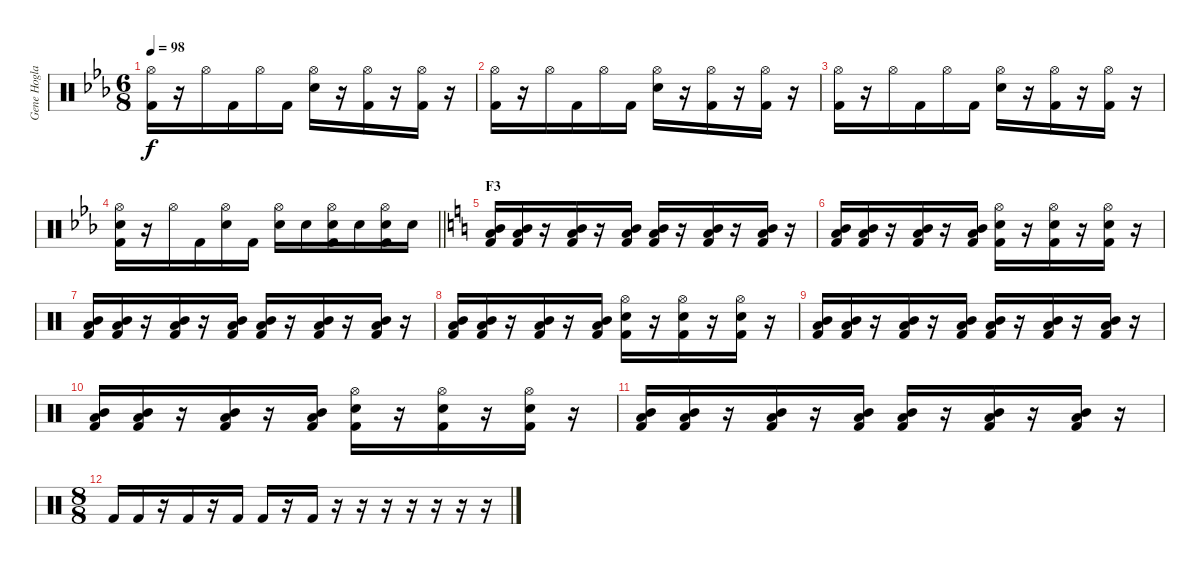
\track ("Gene Hogland" "Gene Hogla") {instrument percussion}
\staff {score}
\articulation defaults
\ts (6 8)
\tempo 98
\clef neutral
\ks eb
("Hi-Hat (open)" "Kick (hit) 2").16{dy f} r.16 "Hi-Hat (open)".16 "Kick (hit) 2".16 "Hi-Hat (open)".16 "Kick (hit) 2".16 ("Hi-Hat (open)" "Electric Snare (hit)").16 r.16 ("Hi-Hat (open)" "Kick (hit) 2").16 r.16 ("Hi-Hat (open)" "Kick (hit) 2").16 r.16 |
("Hi-Hat (open)" "Kick (hit) 2").16 r.16 "Hi-Hat (open)".16 "Kick (hit) 2".16 "Hi-Hat (open)".16 "Kick (hit) 2".16 ("Hi-Hat (open)" "Electric Snare (hit)").16 r.16 ("Hi-Hat (open)" "Kick (hit) 2").16 r.16 ("Hi-Hat (open)" "Kick (hit) 2").16 r.16 |
("Hi-Hat (open)" "Kick (hit) 2").16 r.16 "Hi-Hat (open)".16 "Kick (hit) 2".16 "Hi-Hat (open)".16 "Kick (hit) 2".16 ("Hi-Hat (open)" "Electric Snare (hit)").16 r.16 ("Hi-Hat (open)" "Kick (hit) 2").16 r.16 ("Hi-Hat (open)" "Kick (hit) 2").16 r.16 |
\barLineRight lightlight
("Hi-Hat (open)" "Electric Snare (hit)" "Kick (hit) 2").16 r.16 "Hi-Hat (open)".16 "Kick (hit) 2".16 ("Hi-Hat (open)" "Electric Snare (hit)").16 "Kick (hit) 2".16 ("Hi-Hat (open)" "Electric Snare (hit)").16 "Electric Snare (hit)".16 ("Hi-Hat (open)" "Electric Snare (hit)" "Kick (hit) 2").16 "Electric Snare (hit)".16 ("Hi-Hat (open)" "Electric Snare (hit)" "Kick (hit) 2").16 "Electric Snare (hit)".16 |
\section ("" "F3")
\ks c
("Mid Tom (hit)" "Low Tom (hit)" "Kick (hit) 2").16 ("Mid Tom (hit)" "Low Tom (hit)" "Kick (hit) 2").16 r.16 ("Mid Tom (hit)" "Low Tom (hit)" "Kick (hit) 2").16 r.16 ("Mid Tom (hit)" "Low Tom (hit)" "Kick (hit) 2").16 ("Mid Tom (hit)" "Low Tom (hit)" "Kick (hit) 2").16 r.16 ("Mid Tom (hit)" "Low Tom (hit)" "Kick (hit) 2").16 r.16 ("Mid Tom (hit)" "Low Tom (hit)" "Kick (hit) 2").16 r.16 |
("Mid Tom (hit)" "Low Tom (hit)" "Kick (hit) 2").16 ("Mid Tom (hit)" "Low Tom (hit)" "Kick (hit) 2").16 r.16 ("Mid Tom (hit)" "Low Tom (hit)" "Kick (hit) 2").16 r.16 ("Mid Tom (hit)" "Low Tom (hit)" "Kick (hit) 2").16 ("Hi-Hat (open)" "Electric Snare (hit)" "Kick (hit) 2").16 r.16 ("Hi-Hat (open)" "Electric Snare (hit)" "Kick (hit) 2").16 r.16 ("Hi-Hat (open)" "Electric Snare (hit)" "Kick (hit) 2").16 r.16 |
("Mid Tom (hit)" "Low Tom (hit)" "Kick (hit) 2").16 ("Mid Tom (hit)" "Low Tom (hit)" "Kick (hit) 2").16 r.16 ("Mid Tom (hit)" "Low Tom (hit)" "Kick (hit) 2").16 r.16 ("Mid Tom (hit)" "Low Tom (hit)" "Kick (hit) 2").16 ("Mid Tom (hit)" "Low Tom (hit)" "Kick (hit) 2").16 r.16 ("Mid Tom (hit)" "Low Tom (hit)" "Kick (hit) 2").16 r.16 ("Mid Tom (hit)" "Low Tom (hit)" "Kick (hit) 2").16 r.16 |
("Mid Tom (hit)" "Low Tom (hit)" "Kick (hit) 2").16 ("Mid Tom (hit)" "Low Tom (hit)" "Kick (hit) 2").16 r.16 ("Mid Tom (hit)" "Low Tom (hit)" "Kick (hit) 2").16 r.16 ("Mid Tom (hit)" "Low Tom (hit)" "Kick (hit) 2").16 ("Hi-Hat (open)" "Electric Snare (hit)" "Kick (hit) 2").16 r.16 ("Hi-Hat (open)" "Electric Snare (hit)" "Kick (hit) 2").16 r.16 ("Hi-Hat (open)" "Electric Snare (hit)" "Kick (hit) 2").16 r.16 |
("Mid Tom (hit)" "Low Tom (hit)" "Kick (hit) 2").16 ("Mid Tom (hit)" "Low Tom (hit)" "Kick (hit) 2").16 r.16 ("Mid Tom (hit)" "Low Tom (hit)" "Kick (hit) 2").16 r.16 ("Mid Tom (hit)" "Low Tom (hit)" "Kick (hit) 2").16 ("Mid Tom (hit)" "Low Tom (hit)" "Kick (hit) 2").16 r.16 ("Mid Tom (hit)" "Low Tom (hit)" "Kick (hit) 2").16 r.16 ("Mid Tom (hit)" "Low Tom (hit)" "Kick (hit) 2").16 r.16 |
("Mid Tom (hit)" "Low Tom (hit)" "Kick (hit) 2").16 ("Mid Tom (hit)" "Low Tom (hit)" "Kick (hit) 2").16 r.16 ("Mid Tom (hit)" "Low Tom (hit)" "Kick (hit) 2").16 r.16 ("Mid Tom (hit)" "Low Tom (hit)" "Kick (hit) 2").16 ("Hi-Hat (open)" "Electric Snare (hit)" "Kick (hit) 2").16 r.16 ("Hi-Hat (open)" "Electric Snare (hit)" "Kick (hit) 2").16 r.16 ("Hi-Hat (open)" "Electric Snare (hit)" "Kick (hit) 2").16 r.16 |
("Mid Tom (hit)" "Low Tom (hit)" "Kick (hit) 2").16 ("Mid Tom (hit)" "Low Tom (hit)" "Kick (hit) 2").16 r.16 ("Mid Tom (hit)" "Low Tom (hit)" "Kick (hit) 2").16 r.16 ("Mid Tom (hit)" "Low Tom (hit)" "Kick (hit) 2").16 ("Mid Tom (hit)" "Low Tom (hit)" "Kick (hit) 2").16 r.16 ("Mid Tom (hit)" "Low Tom (hit)" "Kick (hit) 2").16 r.16 ("Mid Tom (hit)" "Low Tom (hit)" "Kick (hit) 2").16 r.16 |
\ts (8 8)
"Kick (hit) 2".16 "Kick (hit) 2".16 r.16 "Kick (hit) 2".16 r.16 "Kick (hit) 2".16 "Kick (hit) 2".16 r.16 "Kick (hit) 2".16 r.16 r.16 r.16 r.16 r.16 r.16 r.16
